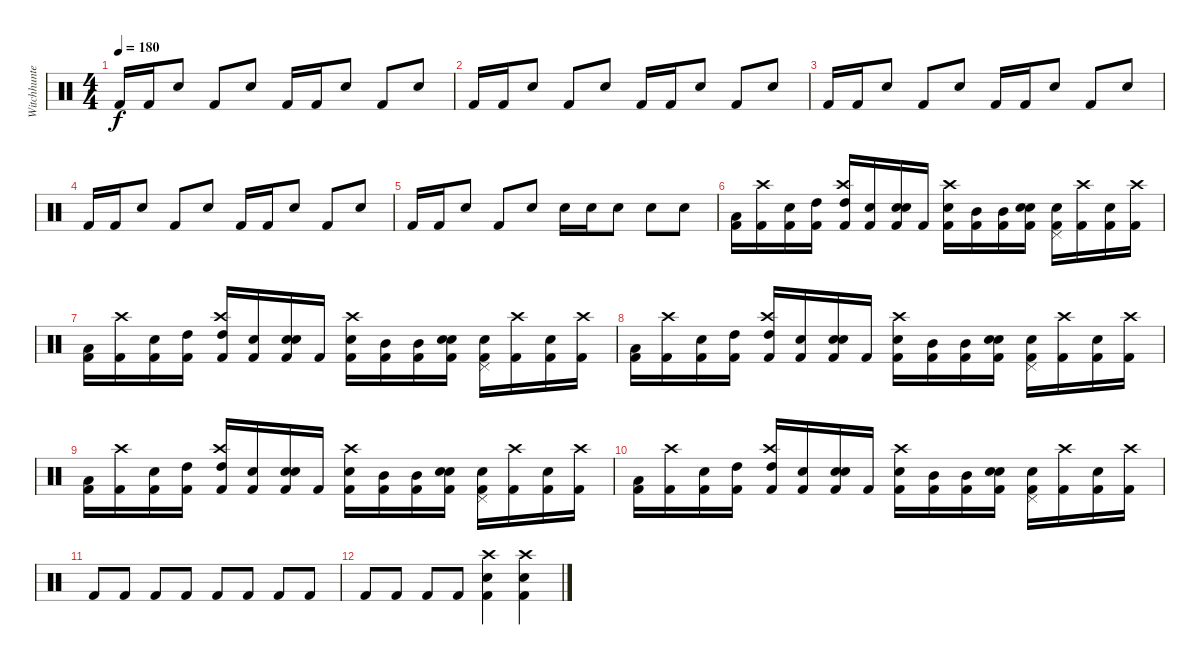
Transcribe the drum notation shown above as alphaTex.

\track ("Witchhunter (Drums)" "Witchhunte") {instrument percussion}
\staff {score}
\articulation defaults
\ts (4 4)
\tempo 180
\clef neutral
\ks c "Kick (hit) 2".16{dy f} "Kick (hit) 2".16 "Snare (hit) 2".8 "Kick (hit) 2".8 "Snare (hit) 2".8 "Kick (hit) 2".16 "Kick (hit) 2".16 "Snare (hit) 2".8 "Kick (hit) 2".8 "Snare (hit) 2".8
|
"Kick (hit) 2".16 "Kick (hit) 2".16 "Snare (hit) 2".8 "Kick (hit) 2".8 "Snare (hit) 2".8 "Kick (hit) 2".16 "Kick (hit) 2".16 "Snare (hit) 2".8 "Kick (hit) 2".8 "Snare (hit) 2".8 |
"Kick (hit) 2".16 "Kick (hit) 2".16 "Snare (hit) 2".8 "Kick (hit) 2".8 "Snare (hit) 2".8 "Kick (hit) 2".16 "Kick (hit) 2".16 "Snare (hit) 2".8 "Kick (hit) 2".8 "Snare (hit) 2".8 |
"Kick (hit) 2".16 "Kick (hit) 2".16 "Snare (hit) 2".8 "Kick (hit) 2".8 "Snare (hit) 2".8 "Kick (hit) 2".16 "Kick (hit) 2".16 "Snare (hit) 2".8 "Kick (hit) 2".8 "Snare (hit) 2".8 |
"Kick (hit) 2".16 "Kick (hit) 2".16 "Snare (hit) 2".8 "Kick (hit) 2".8 "Snare (hit) 2".8 "Snare (hit) 2".16 "Snare (hit) 2".16 "Snare (hit) 2".8 "Snare (hit) 2".8 "Snare (hit) 2".8 |
("Low Tom (hit)" "Kick (hit) 2").16 ("Crash high (hit)" "Kick (hit) 2").16 ("Metronome (bell)" "Kick (hit) 2").16 ("High Tom (hit)" "Kick (hit) 2").16 ("Crash high (hit)" "High Tom (hit)" "Kick (hit) 2").16 ("Snare (hit) 2" "Kick (hit) 2").16 ("Snare (hit) 2" "Metronome (bell)" "Kick (hit) 2").16 "Kick (hit) 2".16 ("Crash high (hit)" "Snare (hit) 2" "Kick (hit) 2").16 ("Mid Tom (hit)" "Kick (hit) 2").16 ("Mid Tom (hit)" "Kick (hit) 2").16 ("Snare (hit) 2" "Snare (hit)" "Kick (hit) 2").16 ("Snare (hit) 2" "Pedal Hi-Hat (hit)" "Kick (hit) 2").16 ("Crash high (hit)" "Kick (hit) 2").16 ("Snare (hit) 2" "Kick (hit) 2").16 ("Crash high (hit)" "Kick (hit) 2").16 |
("Low Tom (hit)" "Kick (hit) 2").16 ("Crash high (hit)" "Kick (hit) 2").16 ("Metronome (bell)" "Kick (hit) 2").16 ("High Tom (hit)" "Kick (hit) 2").16 ("Crash high (hit)" "High Tom (hit)" "Kick (hit) 2").16 ("Snare (hit) 2" "Kick (hit) 2").16 ("Snare (hit) 2" "Metronome (bell)" "Kick (hit) 2").16 "Kick (hit) 2".16 ("Crash high (hit)" "Snare (hit) 2" "Kick (hit) 2").16 ("Mid Tom (hit)" "Kick (hit) 2").16 ("Mid Tom (hit)" "Kick (hit) 2").16 ("Snare (hit) 2" "Snare (hit)" "Kick (hit) 2").16 ("Snare (hit) 2" "Pedal Hi-Hat (hit)" "Kick (hit) 2").16 ("Crash high (hit)" "Kick (hit) 2").16 ("Snare (hit) 2" "Kick (hit) 2").16 ("Crash high (hit)" "Kick (hit) 2").16 |
("Low Tom (hit)" "Kick (hit) 2").16 ("Crash high (hit)" "Kick (hit) 2").16 ("Metronome (bell)" "Kick (hit) 2").16 ("High Tom (hit)" "Kick (hit) 2").16 ("Crash high (hit)" "High Tom (hit)" "Kick (hit) 2").16 ("Snare (hit) 2" "Kick (hit) 2").16 ("Snare (hit) 2" "Metronome (bell)" "Kick (hit) 2").16 "Kick (hit) 2".16 ("Crash high (hit)" "Snare (hit) 2" "Kick (hit) 2").16 ("Mid Tom (hit)" "Kick (hit) 2").16 ("Mid Tom (hit)" "Kick (hit) 2").16 ("Snare (hit) 2" "Snare (hit)" "Kick (hit) 2").16 ("Snare (hit) 2" "Pedal Hi-Hat (hit)" "Kick (hit) 2").16 ("Crash high (hit)" "Kick (hit) 2").16 ("Snare (hit) 2" "Kick (hit) 2").16 ("Crash high (hit)" "Kick (hit) 2").16 |
("Low Tom (hit)" "Kick (hit) 2").16 ("Crash high (hit)" "Kick (hit) 2").16 ("Metronome (bell)" "Kick (hit) 2").16 ("High Tom (hit)" "Kick (hit) 2").16 ("Crash high (hit)" "High Tom (hit)" "Kick (hit) 2").16 ("Snare (hit) 2" "Kick (hit) 2").16 ("Snare (hit) 2" "Metronome (bell)" "Kick (hit) 2").16 "Kick (hit) 2".16 ("Crash high (hit)" "Snare (hit) 2" "Kick (hit) 2").16 ("Mid Tom (hit)" "Kick (hit) 2").16 ("Mid Tom (hit)" "Kick (hit) 2").16 ("Snare (hit) 2" "Snare (hit)" "Kick (hit) 2").16 ("Snare (hit) 2" "Pedal Hi-Hat (hit)" "Kick (hit) 2").16 ("Crash high (hit)" "Kick (hit) 2").16 ("Snare (hit) 2" "Kick (hit) 2").16 ("Crash high (hit)" "Kick (hit) 2").16 |
("Low Tom (hit)" "Kick (hit) 2").16 ("Crash high (hit)" "Kick (hit) 2").16 ("Metronome (bell)" "Kick (hit) 2").16 ("High Tom (hit)" "Kick (hit) 2").16 ("Crash high (hit)" "High Tom (hit)" "Kick (hit) 2").16 ("Snare (hit) 2" "Kick (hit) 2").16 ("Snare (hit) 2" "Metronome (bell)" "Kick (hit) 2").16 "Kick (hit) 2".16 ("Crash high (hit)" "Snare (hit) 2" "Kick (hit) 2").16 ("Mid Tom (hit)" "Kick (hit) 2").16 ("Mid Tom (hit)" "Kick (hit) 2").16 ("Snare (hit) 2" "Snare (hit)" "Kick (hit) 2").16 ("Snare (hit) 2" "Pedal Hi-Hat (hit)" "Kick (hit) 2").16 ("Crash high (hit)" "Kick (hit) 2").16 ("Snare (hit) 2" "Kick (hit) 2").16 ("Crash high (hit)" "Kick (hit) 2").16 |
"Kick (hit) 2".8 "Kick (hit) 2".8 "Kick (hit) 2".8 "Kick (hit) 2".8 "Kick (hit) 2".8 "Kick (hit) 2".8 "Kick (hit) 2".8 "Kick (hit) 2".8 |
"Kick (hit) 2".8 "Kick (hit) 2".8 "Kick (hit) 2".8 "Kick (hit) 2".8 ("Crash high (hit)" "Snare (hit) 2" "Kick (hit) 2").4 ("Crash high (hit)" "Snare (hit) 2" "Kick (hit) 2").4
